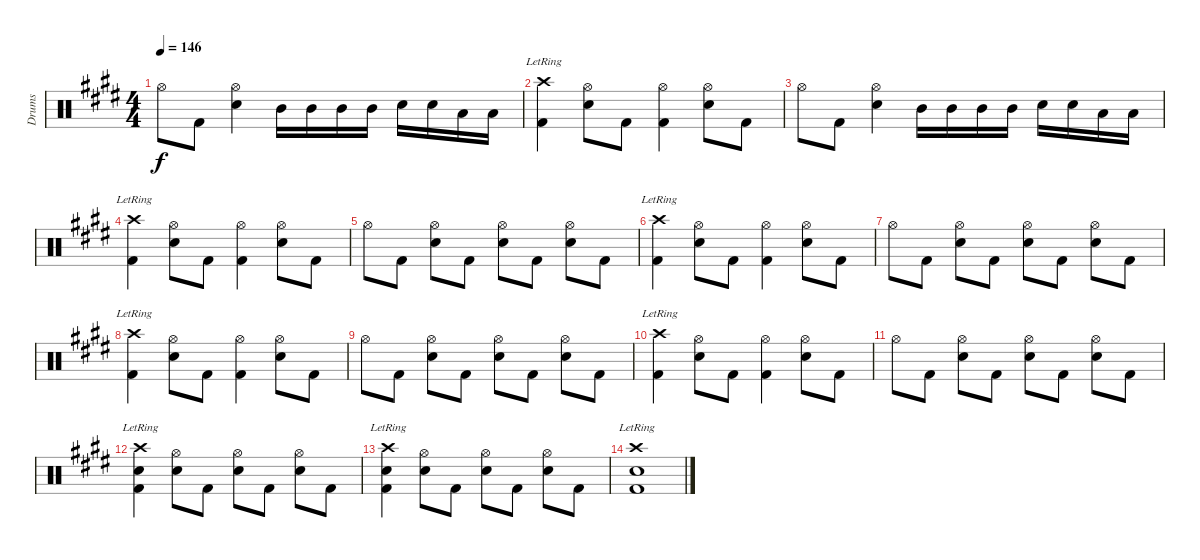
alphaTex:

\track ("Drums" "Drums") {instrument percussion}
\staff {score}
\articulation defaults
\ts (4 4)
\tempo 146
\clef neutral
\ks e "Hi-Hat (open)".8{dy f} "Kick (hit) 2".8
("Snare (hit) 2" "Hi-Hat (open)").4 "Mid Tom (hit)".16 "Mid Tom (hit)".16 "Mid Tom (hit)".16 "Mid Tom (hit)".16 "Snare (hit) 2".16 "Snare (hit) 2".16 "Low Floor Tom (hit)".16 "Low Floor Tom (hit)".16 |
("Kick (hit) 2" "Crash high (hit)"{lr}).4 ("Snare (hit) 2" "Hi-Hat (open)").8 "Kick (hit) 2".8 ("Kick (hit) 2" "Hi-Hat (open)").4 ("Snare (hit) 2" "Hi-Hat (open)").8 "Kick (hit) 2".8 |
"Hi-Hat (open)".8 "Kick (hit) 2".8 ("Snare (hit) 2" "Hi-Hat (open)").4 "Mid Tom (hit)".16 "Mid Tom (hit)".16 "Mid Tom (hit)".16 "Mid Tom (hit)".16 "Snare (hit) 2".16 "Snare (hit) 2".16 "Low Floor Tom (hit)".16 "Low Floor Tom (hit)".16 |
("Kick (hit) 2" "Crash high (hit)"{lr}).4 ("Snare (hit) 2" "Hi-Hat (open)").8 "Kick (hit) 2".8 ("Kick (hit) 2" "Hi-Hat (open)").4 ("Snare (hit) 2" "Hi-Hat (open)").8 "Kick (hit) 2".8 |
"Hi-Hat (open)".8 "Kick (hit) 2".8 ("Snare (hit) 2" "Hi-Hat (open)").8 "Kick (hit) 2".8 ("Snare (hit) 2" "Hi-Hat (open)").8 "Kick (hit) 2".8 ("Snare (hit) 2" "Hi-Hat (open)").8 "Kick (hit) 2".8 |
("Kick (hit) 2" "Crash high (hit)"{lr}).4 ("Snare (hit) 2" "Hi-Hat (open)").8 "Kick (hit) 2".8 ("Kick (hit) 2" "Hi-Hat (open)").4 ("Snare (hit) 2" "Hi-Hat (open)").8 "Kick (hit) 2".8 |
"Hi-Hat (open)".8 "Kick (hit) 2".8 ("Snare (hit) 2" "Hi-Hat (open)").8 "Kick (hit) 2".8 ("Snare (hit) 2" "Hi-Hat (open)").8 "Kick (hit) 2".8 ("Snare (hit) 2" "Hi-Hat (open)").8 "Kick (hit) 2".8 |
("Kick (hit) 2" "Crash high (hit)"{lr}).4 ("Snare (hit) 2" "Hi-Hat (open)").8 "Kick (hit) 2".8 ("Kick (hit) 2" "Hi-Hat (open)").4 ("Snare (hit) 2" "Hi-Hat (open)").8 "Kick (hit) 2".8 |
"Hi-Hat (open)".8 "Kick (hit) 2".8 ("Snare (hit) 2" "Hi-Hat (open)").8 "Kick (hit) 2".8 ("Snare (hit) 2" "Hi-Hat (open)").8 "Kick (hit) 2".8 ("Snare (hit) 2" "Hi-Hat (open)").8 "Kick (hit) 2".8 |
("Kick (hit) 2" "Crash high (hit)"{lr}).4 ("Snare (hit) 2" "Hi-Hat (open)").8 "Kick (hit) 2".8 ("Kick (hit) 2" "Hi-Hat (open)").4 ("Snare (hit) 2" "Hi-Hat (open)").8 "Kick (hit) 2".8 |
"Hi-Hat (open)".8 "Kick (hit) 2".8 ("Snare (hit) 2" "Hi-Hat (open)").8 "Kick (hit) 2".8 ("Snare (hit) 2" "Hi-Hat (open)").8 "Kick (hit) 2".8 ("Snare (hit) 2" "Hi-Hat (open)").8 "Kick (hit) 2".8 |
("Kick (hit) 2" "Snare (hit) 2" "Crash high (hit)"{lr}).4 ("Snare (hit) 2" "Hi-Hat (open)").8 "Kick (hit) 2".8 ("Snare (hit) 2" "Hi-Hat (open)").8 "Kick (hit) 2".8 ("Snare (hit) 2" "Hi-Hat (open)").8 "Kick (hit) 2".8 |
("Kick (hit) 2" "Snare (hit) 2" "Crash high (hit)"{lr}).4 ("Snare (hit) 2" "Hi-Hat (open)").8 "Kick (hit) 2".8 ("Snare (hit) 2" "Hi-Hat (open)").8 "Kick (hit) 2".8 ("Snare (hit) 2" "Hi-Hat (open)").8 "Kick (hit) 2".8 |
("Kick (hit) 2" "Snare (hit) 2" "Crash high (hit)"{lr}).1
